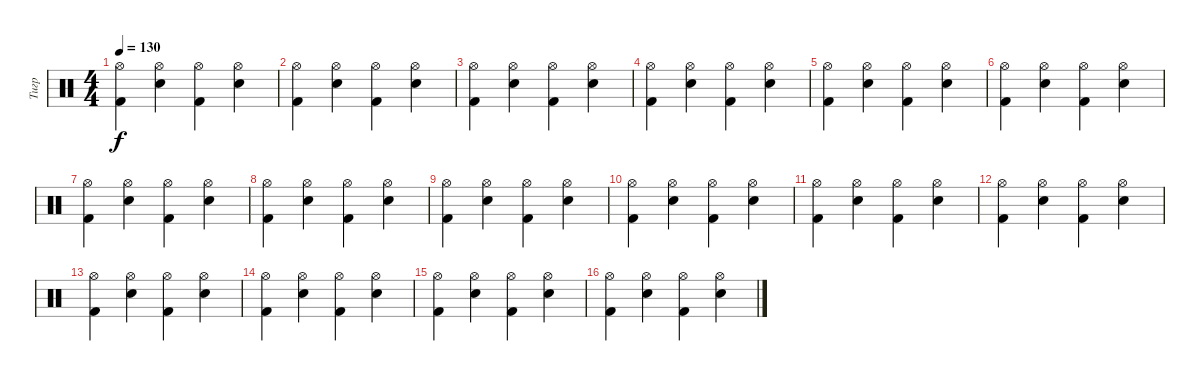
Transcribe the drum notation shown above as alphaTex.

\track ("Тигр" "Тигр") {instrument percussion}
\staff {score}
\articulation defaults
\ts (4 4)
\tempo 130
\clef neutral
\ks c
("Hi-Hat (open)" "Kick (hit) 2").4{dy f} ("Hi-Hat (open)" "Snare (hit) 2").4 ("Hi-Hat (open)" "Kick (hit) 2").4 ("Hi-Hat (open)" "Snare (hit) 2").4 |
("Hi-Hat (open)" "Kick (hit) 2").4 ("Hi-Hat (open)" "Snare (hit) 2").4 ("Hi-Hat (open)" "Kick (hit) 2").4 ("Hi-Hat (open)" "Snare (hit) 2").4 |
("Hi-Hat (open)" "Kick (hit) 2").4 ("Hi-Hat (open)" "Snare (hit) 2").4 ("Hi-Hat (open)" "Kick (hit) 2").4 ("Hi-Hat (open)" "Snare (hit) 2").4 |
("Hi-Hat (open)" "Kick (hit) 2").4 ("Hi-Hat (open)" "Snare (hit) 2").4 ("Hi-Hat (open)" "Kick (hit) 2").4 ("Hi-Hat (open)" "Snare (hit) 2").4 |
("Hi-Hat (open)" "Kick (hit) 2").4 ("Hi-Hat (open)" "Snare (hit) 2").4 ("Hi-Hat (open)" "Kick (hit) 2").4 ("Hi-Hat (open)" "Snare (hit) 2").4 |
("Hi-Hat (open)" "Kick (hit) 2").4 ("Hi-Hat (open)" "Snare (hit) 2").4 ("Hi-Hat (open)" "Kick (hit) 2").4 ("Hi-Hat (open)" "Snare (hit) 2").4 |
("Hi-Hat (open)" "Kick (hit) 2").4 ("Hi-Hat (open)" "Snare (hit) 2").4 ("Hi-Hat (open)" "Kick (hit) 2").4 ("Hi-Hat (open)" "Snare (hit) 2").4 |
("Hi-Hat (open)" "Kick (hit) 2").4 ("Hi-Hat (open)" "Snare (hit) 2").4 ("Hi-Hat (open)" "Kick (hit) 2").4 ("Hi-Hat (open)" "Snare (hit) 2").4 |
("Hi-Hat (open)" "Kick (hit) 2").4 ("Hi-Hat (open)" "Snare (hit) 2").4 ("Hi-Hat (open)" "Kick (hit) 2").4 ("Hi-Hat (open)" "Snare (hit) 2").4 |
("Hi-Hat (open)" "Kick (hit) 2").4 ("Hi-Hat (open)" "Snare (hit) 2").4 ("Hi-Hat (open)" "Kick (hit) 2").4 ("Hi-Hat (open)" "Snare (hit) 2").4 |
("Hi-Hat (open)" "Kick (hit) 2").4 ("Hi-Hat (open)" "Snare (hit) 2").4 ("Hi-Hat (open)" "Kick (hit) 2").4 ("Hi-Hat (open)" "Snare (hit) 2").4 |
("Hi-Hat (open)" "Kick (hit) 2").4 ("Hi-Hat (open)" "Snare (hit) 2").4 ("Hi-Hat (open)" "Kick (hit) 2").4 ("Hi-Hat (open)" "Snare (hit) 2").4 |
("Hi-Hat (open)" "Kick (hit) 2").4 ("Hi-Hat (open)" "Snare (hit) 2").4 ("Hi-Hat (open)" "Kick (hit) 2").4 ("Hi-Hat (open)" "Snare (hit) 2").4 |
("Hi-Hat (open)" "Kick (hit) 2").4 ("Hi-Hat (open)" "Snare (hit) 2").4 ("Hi-Hat (open)" "Kick (hit) 2").4 ("Hi-Hat (open)" "Snare (hit) 2").4 |
("Hi-Hat (open)" "Kick (hit) 2").4 ("Hi-Hat (open)" "Snare (hit) 2").4 ("Hi-Hat (open)" "Kick (hit) 2").4 ("Hi-Hat (open)" "Snare (hit) 2").4 |
("Hi-Hat (open)" "Kick (hit) 2").4 ("Hi-Hat (open)" "Snare (hit) 2").4 ("Hi-Hat (open)" "Kick (hit) 2").4 ("Hi-Hat (open)" "Snare (hit) 2").4
